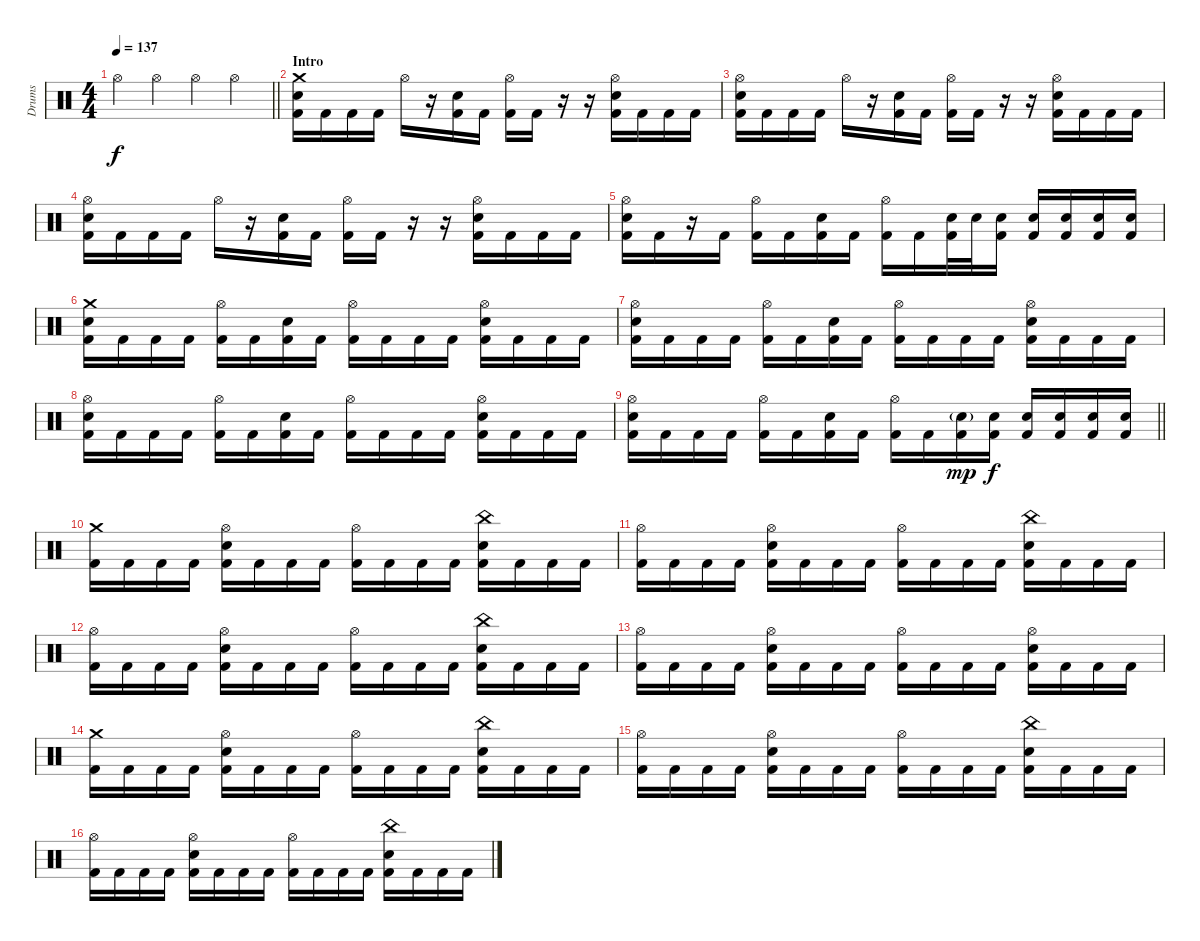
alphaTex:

\track ("Drums" "Drums") {instrument percussion}
\staff {score}
\articulation defaults
\ts (4 4)
\tempo 137
\clef neutral
\barLineRight lightlight
\ks c "Hi-Hat (open)".4{dy f} "Hi-Hat (open)".4 "Hi-Hat (open)".4 "Hi-Hat (open)".4
|
\section ("" "Intro")
("Crash medium (hit)" "Electric Snare (hit)" "Kick (hit) 2").16 "Kick (hit) 2".16 "Kick (hit) 2".16 "Kick (hit) 2".16 "Hi-Hat (open)".16 r.16 ("Electric Snare (hit)" "Kick (hit) 2").16 "Kick (hit) 2".16 ("Hi-Hat (open)" "Kick (hit) 2").16 "Kick (hit) 2".16 r.16 r.16 ("Hi-Hat (open)" "Electric Snare (hit)" "Kick (hit) 2").16 "Kick (hit) 2".16 "Kick (hit) 2".16 "Kick (hit) 2".16 |
("Hi-Hat (open)" "Electric Snare (hit)" "Kick (hit) 2").16 "Kick (hit) 2".16 "Kick (hit) 2".16 "Kick (hit) 2".16 "Hi-Hat (open)".16 r.16 ("Electric Snare (hit)" "Kick (hit) 2").16 "Kick (hit) 2".16 ("Hi-Hat (open)" "Kick (hit) 2").16 "Kick (hit) 2".16 r.16 r.16 ("Hi-Hat (open)" "Electric Snare (hit)" "Kick (hit) 2").16 "Kick (hit) 2".16 "Kick (hit) 2".16 "Kick (hit) 2".16 |
("Hi-Hat (open)" "Electric Snare (hit)" "Kick (hit) 2").16 "Kick (hit) 2".16 "Kick (hit) 2".16 "Kick (hit) 2".16 "Hi-Hat (open)".16 r.16 ("Electric Snare (hit)" "Kick (hit) 2").16 "Kick (hit) 2".16 ("Hi-Hat (open)" "Kick (hit) 2").16 "Kick (hit) 2".16 r.16 r.16 ("Hi-Hat (open)" "Electric Snare (hit)" "Kick (hit) 2").16 "Kick (hit) 2".16 "Kick (hit) 2".16 "Kick (hit) 2".16 |
("Hi-Hat (open)" "Electric Snare (hit)" "Kick (hit) 2").16 "Kick (hit) 2".16 r.16 "Kick (hit) 2".16 ("Hi-Hat (open)" "Kick (hit) 2").16 "Kick (hit) 2".16 ("Electric Snare (hit)" "Kick (hit) 2").16 "Kick (hit) 2".16 ("Hi-Hat (open)" "Kick (hit) 2").16 "Kick (hit) 2".16 ("Electric Snare (hit)" "Kick (hit) 2").32 "Electric Snare (hit)".32 ("Electric Snare (hit)" "Kick (hit) 2").16 ("Electric Snare (hit)" "Kick (hit) 2").16 ("Electric Snare (hit)" "Kick (hit) 2").16 ("Electric Snare (hit)" "Kick (hit) 2").16 ("Electric Snare (hit)" "Kick (hit) 2").16 |
("Crash medium (hit)" "Electric Snare (hit)" "Kick (hit) 2").16 "Kick (hit) 2".16 "Kick (hit) 2".16 "Kick (hit) 2".16 ("Hi-Hat (open)" "Kick (hit) 2").16 "Kick (hit) 2".16 ("Electric Snare (hit)" "Kick (hit) 2").16 "Kick (hit) 2".16 ("Hi-Hat (open)" "Kick (hit) 2").16 "Kick (hit) 2".16 "Kick (hit) 2".16 "Kick (hit) 2".16 ("Hi-Hat (open)" "Electric Snare (hit)" "Kick (hit) 2").16 "Kick (hit) 2".16 "Kick (hit) 2".16 "Kick (hit) 2".16 |
("Hi-Hat (open)" "Electric Snare (hit)" "Kick (hit) 2").16 "Kick (hit) 2".16 "Kick (hit) 2".16 "Kick (hit) 2".16 ("Hi-Hat (open)" "Kick (hit) 2").16 "Kick (hit) 2".16 ("Electric Snare (hit)" "Kick (hit) 2").16 "Kick (hit) 2".16 ("Hi-Hat (open)" "Kick (hit) 2").16 "Kick (hit) 2".16 "Kick (hit) 2".16 "Kick (hit) 2".16 ("Hi-Hat (open)" "Electric Snare (hit)" "Kick (hit) 2").16 "Kick (hit) 2".16 "Kick (hit) 2".16 "Kick (hit) 2".16 |
("Hi-Hat (open)" "Electric Snare (hit)" "Kick (hit) 2").16 "Kick (hit) 2".16 "Kick (hit) 2".16 "Kick (hit) 2".16 ("Hi-Hat (open)" "Kick (hit) 2").16 "Kick (hit) 2".16 ("Electric Snare (hit)" "Kick (hit) 2").16 "Kick (hit) 2".16 ("Hi-Hat (open)" "Kick (hit) 2").16 "Kick (hit) 2".16 "Kick (hit) 2".16 "Kick (hit) 2".16 ("Hi-Hat (open)" "Electric Snare (hit)" "Kick (hit) 2").16 "Kick (hit) 2".16 "Kick (hit) 2".16 "Kick (hit) 2".16 |
\barLineRight lightlight
("Hi-Hat (open)" "Electric Snare (hit)" "Kick (hit) 2").16 "Kick (hit) 2".16 "Kick (hit) 2".16 "Kick (hit) 2".16 ("Hi-Hat (open)" "Kick (hit) 2").16 "Kick (hit) 2".16 ("Electric Snare (hit)" "Kick (hit) 2").16 "Kick (hit) 2".16 ("Hi-Hat (open)" "Kick (hit) 2").16 "Kick (hit) 2".16 ("Electric Snare (hit)"{g} "Kick (hit) 2").16{dy mp} ("Electric Snare (hit)" "Kick (hit) 2").16{dy f} ("Electric Snare (hit)" "Kick (hit) 2").16 ("Electric Snare (hit)" "Kick (hit) 2").16 ("Electric Snare (hit)" "Kick (hit) 2").16 ("Electric Snare (hit)" "Kick (hit) 2").16 |
\section ("" "")
("Crash medium (hit)" "Kick (hit) 2").16 "Kick (hit) 2".16 "Kick (hit) 2".16 "Kick (hit) 2".16 ("Hi-Hat (open)" "Electric Snare (hit)" "Kick (hit) 2").16 "Kick (hit) 2".16 "Kick (hit) 2".16 "Kick (hit) 2".16 ("Hi-Hat (open)" "Kick (hit) 2").16 "Kick (hit) 2".16 "Kick (hit) 2".16 "Kick (hit) 2".16 ("China (hit)" "Electric Snare (hit)" "Kick (hit) 2").16 "Kick (hit) 2".16 "Kick (hit) 2".16 "Kick (hit) 2".16 |
("Hi-Hat (open)" "Kick (hit) 2").16 "Kick (hit) 2".16 "Kick (hit) 2".16 "Kick (hit) 2".16 ("Hi-Hat (open)" "Electric Snare (hit)" "Kick (hit) 2").16 "Kick (hit) 2".16 "Kick (hit) 2".16 "Kick (hit) 2".16 ("Hi-Hat (open)" "Kick (hit) 2").16 "Kick (hit) 2".16 "Kick (hit) 2".16 "Kick (hit) 2".16 ("China (hit)" "Electric Snare (hit)" "Kick (hit) 2").16 "Kick (hit) 2".16 "Kick (hit) 2".16 "Kick (hit) 2".16 |
("Hi-Hat (open)" "Kick (hit) 2").16 "Kick (hit) 2".16 "Kick (hit) 2".16 "Kick (hit) 2".16 ("Hi-Hat (open)" "Electric Snare (hit)" "Kick (hit) 2").16 "Kick (hit) 2".16 "Kick (hit) 2".16 "Kick (hit) 2".16 ("Hi-Hat (open)" "Kick (hit) 2").16 "Kick (hit) 2".16 "Kick (hit) 2".16 "Kick (hit) 2".16 ("China (hit)" "Electric Snare (hit)" "Kick (hit) 2").16 "Kick (hit) 2".16 "Kick (hit) 2".16 "Kick (hit) 2".16 |
("Hi-Hat (open)" "Kick (hit) 2").16 "Kick (hit) 2".16 "Kick (hit) 2".16 "Kick (hit) 2".16 ("Hi-Hat (open)" "Electric Snare (hit)" "Kick (hit) 2").16 "Kick (hit) 2".16 "Kick (hit) 2".16 "Kick (hit) 2".16 ("Hi-Hat (open)" "Kick (hit) 2").16 "Kick (hit) 2".16 "Kick (hit) 2".16 "Kick (hit) 2".16 ("Hi-Hat (open)" "Electric Snare (hit)" "Kick (hit) 2").16 "Kick (hit) 2".16 "Kick (hit) 2".16 "Kick (hit) 2".16 |
("Crash medium (hit)" "Kick (hit) 2").16 "Kick (hit) 2".16 "Kick (hit) 2".16 "Kick (hit) 2".16 ("Hi-Hat (open)" "Electric Snare (hit)" "Kick (hit) 2").16 "Kick (hit) 2".16 "Kick (hit) 2".16 "Kick (hit) 2".16 ("Hi-Hat (open)" "Kick (hit) 2").16 "Kick (hit) 2".16 "Kick (hit) 2".16 "Kick (hit) 2".16 ("China (hit)" "Electric Snare (hit)" "Kick (hit) 2").16 "Kick (hit) 2".16 "Kick (hit) 2".16 "Kick (hit) 2".16 |
("Hi-Hat (open)" "Kick (hit) 2").16 "Kick (hit) 2".16 "Kick (hit) 2".16 "Kick (hit) 2".16 ("Hi-Hat (open)" "Electric Snare (hit)" "Kick (hit) 2").16 "Kick (hit) 2".16 "Kick (hit) 2".16 "Kick (hit) 2".16 ("Hi-Hat (open)" "Kick (hit) 2").16 "Kick (hit) 2".16 "Kick (hit) 2".16 "Kick (hit) 2".16 ("China (hit)" "Electric Snare (hit)" "Kick (hit) 2").16 "Kick (hit) 2".16 "Kick (hit) 2".16 "Kick (hit) 2".16 |
("Hi-Hat (open)" "Kick (hit) 2").16 "Kick (hit) 2".16 "Kick (hit) 2".16 "Kick (hit) 2".16 ("Hi-Hat (open)" "Electric Snare (hit)" "Kick (hit) 2").16 "Kick (hit) 2".16 "Kick (hit) 2".16 "Kick (hit) 2".16 ("Hi-Hat (open)" "Kick (hit) 2").16 "Kick (hit) 2".16 "Kick (hit) 2".16 "Kick (hit) 2".16 ("China (hit)" "Electric Snare (hit)" "Kick (hit) 2").16 "Kick (hit) 2".16 "Kick (hit) 2".16 "Kick (hit) 2".16
